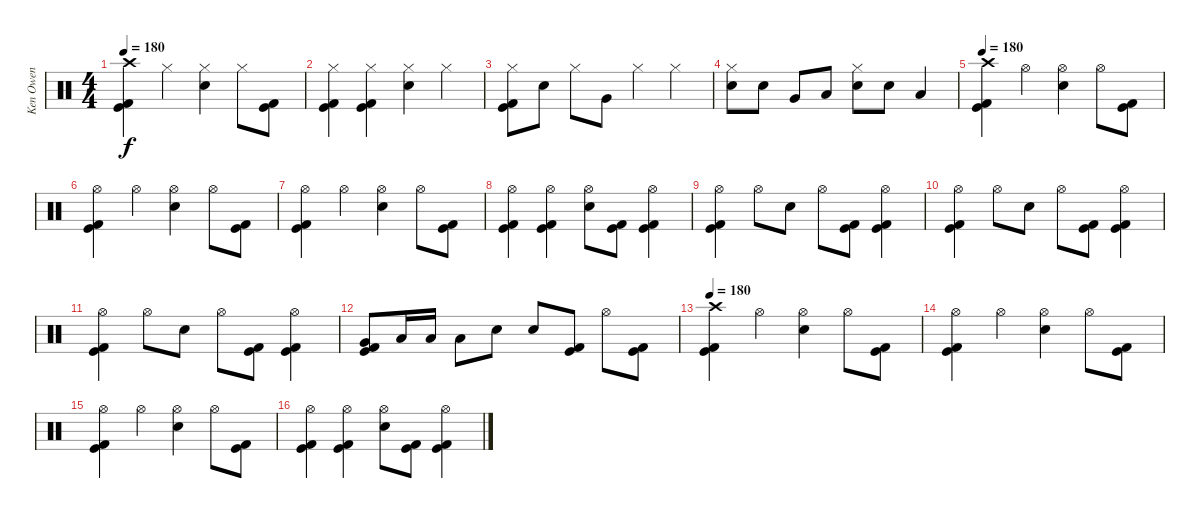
\track ("Ken Owen" "Ken Owen") {instrument percussion}
\staff {score}
\articulation defaults
\ts (4 4)
\tempo 180
\clef neutral
\ks c
("Crash high (hit)" "Kick (hit)" "Kick (hit) 2").4{dy f} "Hi-Hat (closed)".4 ("Hi-Hat (closed)" "Electric Snare (hit)").4 "Hi-Hat (closed)".8 ("Kick (hit)" "Kick (hit) 2").8 |
("Hi-Hat (closed)" "Kick (hit)" "Kick (hit) 2").4 ("Hi-Hat (closed)" "Kick (hit)" "Kick (hit) 2").4 ("Hi-Hat (closed)" "Electric Snare (hit)").4 "Hi-Hat (closed)".4 |
("Hi-Hat (closed)" "Kick (hit)" "Kick (hit) 2").8 "Electric Snare (hit)".8 "Hi-Hat (closed)".8 "Very Low Tom (hit)".8 "Hi-Hat (closed)".4 "Hi-Hat (closed)".4 |
("Hi-Hat (closed)" "Electric Snare (hit)").8 "Electric Snare (hit)".8 "Very Low Tom (hit)".8 "Low Floor Tom (hit)".8 ("Hi-Hat (closed)" "Electric Snare (hit)").8 "Electric Snare (hit)".8 "Low Floor Tom (hit)".4 |
\tempo 180
("Crash high (hit)" "Kick (hit)" "Kick (hit) 2").4 "Hi-Hat (open)".4 ("Hi-Hat (open)" "Electric Snare (hit)").4 "Hi-Hat (open)".8 ("Kick (hit)" "Kick (hit) 2").8 |
("Hi-Hat (open)" "Kick (hit)" "Kick (hit) 2").4 "Hi-Hat (open)".4 ("Hi-Hat (open)" "Electric Snare (hit)").4 "Hi-Hat (open)".8 ("Kick (hit)" "Kick (hit) 2").8 |
("Hi-Hat (open)" "Kick (hit)" "Kick (hit) 2").4 "Hi-Hat (open)".4 ("Hi-Hat (open)" "Electric Snare (hit)").4 "Hi-Hat (open)".8 ("Kick (hit)" "Kick (hit) 2").8 |
("Hi-Hat (open)" "Kick (hit)" "Kick (hit) 2").4 ("Hi-Hat (open)" "Kick (hit)" "Kick (hit) 2").4 ("Hi-Hat (open)" "Electric Snare (hit)").8 ("Kick (hit)" "Kick (hit) 2").8 ("Hi-Hat (open)" "Kick (hit)" "Kick (hit) 2").4 |
("Hi-Hat (open)" "Kick (hit)" "Kick (hit) 2").4 "Hi-Hat (open)".8 "Electric Snare (hit)".8 "Hi-Hat (open)".8 ("Kick (hit)" "Kick (hit) 2").8 ("Hi-Hat (open)" "Kick (hit)" "Kick (hit) 2").4 |
("Hi-Hat (open)" "Kick (hit)" "Kick (hit) 2").4 "Hi-Hat (open)".8 "Electric Snare (hit)".8 "Hi-Hat (open)".8 ("Kick (hit)" "Kick (hit) 2").8 ("Hi-Hat (open)" "Kick (hit)" "Kick (hit) 2").4 |
("Hi-Hat (open)" "Kick (hit)" "Kick (hit) 2").4 "Hi-Hat (open)".8 "Electric Snare (hit)".8 "Hi-Hat (open)".8 ("Kick (hit)" "Kick (hit) 2").8 ("Hi-Hat (open)" "Kick (hit)" "Kick (hit) 2").4 |
("Very Low Tom (hit)" "Kick (hit)" "Kick (hit) 2").8 "Low Floor Tom (hit)".16 "Low Floor Tom (hit)".16 "Low Floor Tom (hit)".8 "Electric Snare (hit)".8 "Electric Snare (hit)".8 ("Kick (hit)" "Kick (hit) 2").8 "Hi-Hat (open)".8 ("Kick (hit)" "Kick (hit) 2").8 |
\tempo 180
("Crash high (hit)" "Kick (hit)" "Kick (hit) 2").4 "Hi-Hat (open)".4 ("Hi-Hat (open)" "Electric Snare (hit)").4 "Hi-Hat (open)".8 ("Kick (hit)" "Kick (hit) 2").8 |
("Hi-Hat (open)" "Kick (hit)" "Kick (hit) 2").4 "Hi-Hat (open)".4 ("Hi-Hat (open)" "Electric Snare (hit)").4 "Hi-Hat (open)".8 ("Kick (hit)" "Kick (hit) 2").8 |
("Hi-Hat (open)" "Kick (hit)" "Kick (hit) 2").4 "Hi-Hat (open)".4 ("Hi-Hat (open)" "Electric Snare (hit)").4 "Hi-Hat (open)".8 ("Kick (hit)" "Kick (hit) 2").8 |
("Hi-Hat (open)" "Kick (hit)" "Kick (hit) 2").4 ("Hi-Hat (open)" "Kick (hit)" "Kick (hit) 2").4 ("Hi-Hat (open)" "Electric Snare (hit)").8 ("Kick (hit)" "Kick (hit) 2").8 ("Hi-Hat (open)" "Kick (hit)" "Kick (hit) 2").4
